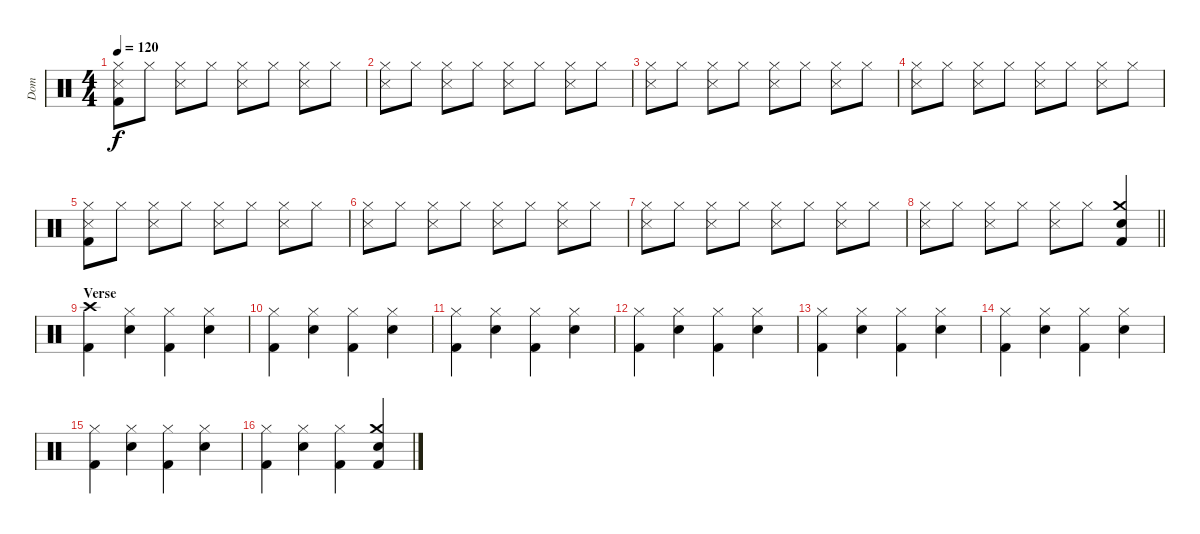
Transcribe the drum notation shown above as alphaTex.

\track ("Dom" "Dom") {instrument percussion}
\staff {score}
\articulation defaults
\ts (4 4)
\tempo 120
\clef neutral
\ks c
("Hi-Hat (closed)" "Snare (side stick) 3" "Kick (hit) 2").8{dy f} "Hi-Hat (closed)".8 ("Hi-Hat (closed)" "Snare (side stick) 3").8 "Hi-Hat (closed)".8 ("Hi-Hat (closed)" "Snare (side stick) 3").8 "Hi-Hat (closed)".8 ("Hi-Hat (closed)" "Snare (side stick) 3").8 "Hi-Hat (closed)".8 |
("Hi-Hat (closed)" "Snare (side stick) 3").8 "Hi-Hat (closed)".8 ("Hi-Hat (closed)" "Snare (side stick) 3").8 "Hi-Hat (closed)".8 ("Hi-Hat (closed)" "Snare (side stick) 3").8 "Hi-Hat (closed)".8 ("Hi-Hat (closed)" "Snare (side stick) 3").8 "Hi-Hat (closed)".8 |
("Hi-Hat (closed)" "Snare (side stick) 3").8 "Hi-Hat (closed)".8 ("Hi-Hat (closed)" "Snare (side stick) 3").8 "Hi-Hat (closed)".8 ("Hi-Hat (closed)" "Snare (side stick) 3").8 "Hi-Hat (closed)".8 ("Hi-Hat (closed)" "Snare (side stick) 3").8 "Hi-Hat (closed)".8 |
("Hi-Hat (closed)" "Snare (side stick) 3").8 "Hi-Hat (closed)".8 ("Hi-Hat (closed)" "Snare (side stick) 3").8 "Hi-Hat (closed)".8 ("Hi-Hat (closed)" "Snare (side stick) 3").8 "Hi-Hat (closed)".8 ("Hi-Hat (closed)" "Snare (side stick) 3").8 "Hi-Hat (closed)".8 |
("Hi-Hat (closed)" "Snare (side stick) 3" "Kick (hit) 2").8 "Hi-Hat (closed)".8 ("Hi-Hat (closed)" "Snare (side stick) 3").8 "Hi-Hat (closed)".8 ("Hi-Hat (closed)" "Snare (side stick) 3").8 "Hi-Hat (closed)".8 ("Hi-Hat (closed)" "Snare (side stick) 3").8 "Hi-Hat (closed)".8 |
("Hi-Hat (closed)" "Snare (side stick) 3").8 "Hi-Hat (closed)".8 ("Hi-Hat (closed)" "Snare (side stick) 3").8 "Hi-Hat (closed)".8 ("Hi-Hat (closed)" "Snare (side stick) 3").8 "Hi-Hat (closed)".8 ("Hi-Hat (closed)" "Snare (side stick) 3").8 "Hi-Hat (closed)".8 |
("Hi-Hat (closed)" "Snare (side stick) 3").8 "Hi-Hat (closed)".8 ("Hi-Hat (closed)" "Snare (side stick) 3").8 "Hi-Hat (closed)".8 ("Hi-Hat (closed)" "Snare (side stick) 3").8 "Hi-Hat (closed)".8 ("Hi-Hat (closed)" "Snare (side stick) 3").8 "Hi-Hat (closed)".8 |
\barLineRight lightlight
("Hi-Hat (closed)" "Snare (side stick) 3").8 "Hi-Hat (closed)".8 ("Hi-Hat (closed)" "Snare (side stick) 3").8 "Hi-Hat (closed)".8 ("Hi-Hat (closed)" "Snare (side stick) 3").8 "Hi-Hat (closed)".8 ("Crash medium (hit)" "Electric Snare (hit)" "Kick (hit) 2").4 |
\section ("" "Verse")
("Crash high (hit)" "Kick (hit) 2").4 ("Hi-Hat (closed)" "Electric Snare (hit)").4 ("Hi-Hat (closed)" "Kick (hit) 2").4 ("Hi-Hat (closed)" "Electric Snare (hit)").4 |
("Hi-Hat (closed)" "Kick (hit) 2").4 ("Hi-Hat (closed)" "Electric Snare (hit)").4 ("Hi-Hat (closed)" "Kick (hit) 2").4 ("Hi-Hat (closed)" "Electric Snare (hit)").4 |
("Hi-Hat (closed)" "Kick (hit) 2").4 ("Hi-Hat (closed)" "Electric Snare (hit)").4 ("Hi-Hat (closed)" "Kick (hit) 2").4 ("Hi-Hat (closed)" "Electric Snare (hit)").4 |
("Hi-Hat (closed)" "Kick (hit) 2").4 ("Hi-Hat (closed)" "Electric Snare (hit)").4 ("Hi-Hat (closed)" "Kick (hit) 2").4 ("Hi-Hat (closed)" "Electric Snare (hit)").4 |
("Hi-Hat (closed)" "Kick (hit) 2").4 ("Hi-Hat (closed)" "Electric Snare (hit)").4 ("Hi-Hat (closed)" "Kick (hit) 2").4 ("Hi-Hat (closed)" "Electric Snare (hit)").4 |
("Hi-Hat (closed)" "Kick (hit) 2").4 ("Hi-Hat (closed)" "Electric Snare (hit)").4 ("Hi-Hat (closed)" "Kick (hit) 2").4 ("Hi-Hat (closed)" "Electric Snare (hit)").4 |
("Hi-Hat (closed)" "Kick (hit) 2").4 ("Hi-Hat (closed)" "Electric Snare (hit)").4 ("Hi-Hat (closed)" "Kick (hit) 2").4 ("Hi-Hat (closed)" "Electric Snare (hit)").4 |
("Hi-Hat (closed)" "Kick (hit) 2").4 ("Hi-Hat (closed)" "Electric Snare (hit)").4 ("Hi-Hat (closed)" "Kick (hit) 2").4 ("Crash medium (hit)" "Electric Snare (hit)" "Kick (hit) 2").4
